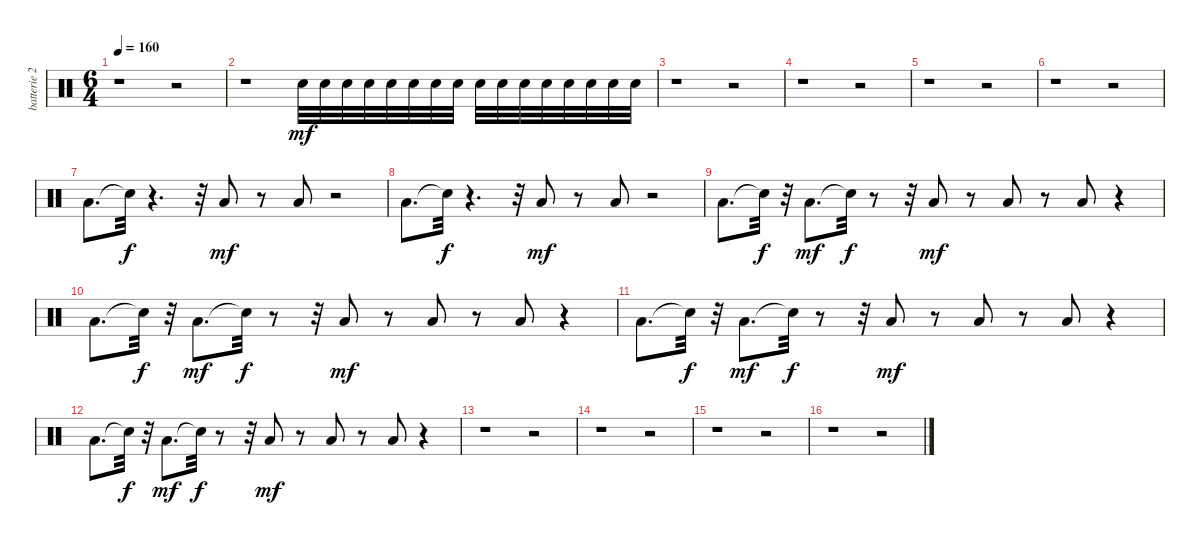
\track ("batterie 2" "batterie 2") {instrument percussion}
\staff {score}
\articulation defaults
\ts (6 4)
\tempo 160
\clef neutral
\ks c
r.1{dy ff} r.2 |
r.1 "Electric Snare (hit)".32{dy mf} "Electric Snare (hit)".32 "Electric Snare (hit)".32 "Electric Snare (hit)".32 "Electric Snare (hit)".32 "Electric Snare (hit)".32 "Electric Snare (hit)".32 "Electric Snare (hit)".32 "Electric Snare (hit)".32 "Electric Snare (hit)".32 "Electric Snare (hit)".32 "Electric Snare (hit)".32 "Electric Snare (hit)".32 "Electric Snare (hit)".32 "Electric Snare (hit)".32 "Electric Snare (hit)".32 |
r.1 r.2 |
r.1 r.2 |
r.1 r.2 |
r.1 r.2 |
"Low Floor Tom (hit)".8{d} "Snare (hit)"{t}.32{dy f} r.4{d} r.32 "Low Floor Tom (hit)".8{dy mf} r.8 "Low Floor Tom (hit)".8 r.2 |
"Low Floor Tom (hit)".8{d} "Snare (hit)"{t}.32{dy f} r.4{d} r.32 "Low Floor Tom (hit)".8{dy mf} r.8 "Low Floor Tom (hit)".8 r.2 |
"Low Floor Tom (hit)".8{d} "Snare (hit)"{t}.32{dy f} r.32 "Low Floor Tom (hit)".8{d dy mf} "Snare (hit)"{t}.32{dy f} r.8 r.32 "Low Floor Tom (hit)".8{dy mf} r.8 "Low Floor Tom (hit)".8 r.8 "Low Floor Tom (hit)".8 r.4 |
"Low Floor Tom (hit)".8{d} "Snare (hit)"{t}.32{dy f} r.32 "Low Floor Tom (hit)".8{d dy mf} "Snare (hit)"{t}.32{dy f} r.8 r.32 "Low Floor Tom (hit)".8{dy mf} r.8 "Low Floor Tom (hit)".8 r.8 "Low Floor Tom (hit)".8 r.4 |
"Low Floor Tom (hit)".8{d} "Snare (hit)"{t}.32{dy f} r.32 "Low Floor Tom (hit)".8{d dy mf} "Snare (hit)"{t}.32{dy f} r.8 r.32 "Low Floor Tom (hit)".8{dy mf} r.8 "Low Floor Tom (hit)".8 r.8 "Low Floor Tom (hit)".8 r.4 |
"Low Floor Tom (hit)".8{d} "Snare (hit)"{t}.32{dy f} r.32 "Low Floor Tom (hit)".8{d dy mf} "Snare (hit)"{t}.32{dy f} r.8 r.32 "Low Floor Tom (hit)".8{dy mf} r.8 "Low Floor Tom (hit)".8 r.8 "Low Floor Tom (hit)".8 r.4 |
r.1 r.2 |
r.1 r.2 |
r.1 r.2 |
r.1 r.2
